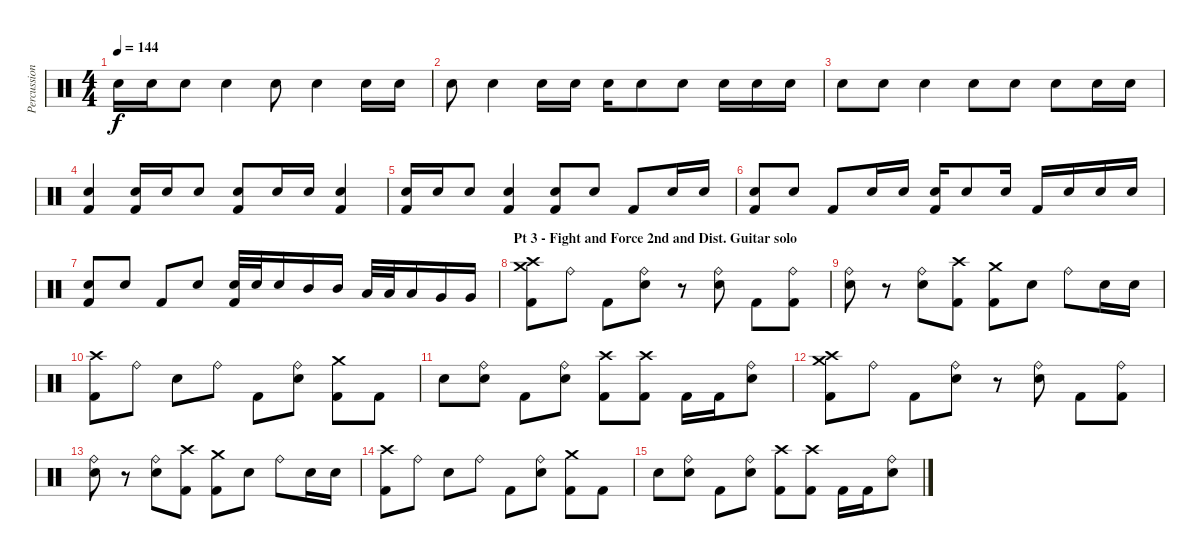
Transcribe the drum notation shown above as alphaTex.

\track ("Percussion" "Percussion") {instrument percussion}
\staff {score}
\articulation defaults
\ts (4 4)
\tempo 144
\clef neutral
\ks c "Electric Snare (hit)".16{dy f} "Electric Snare (hit)".16 "Electric Snare (hit)".8 "Electric Snare (hit)".4 "Electric Snare (hit)".8 "Electric Snare (hit)".4 "Electric Snare (hit)".16 "Electric Snare (hit)".16
|
"Electric Snare (hit)".8 "Electric Snare (hit)".4 "Electric Snare (hit)".16 "Electric Snare (hit)".16 "Electric Snare (hit)".16 "Electric Snare (hit)".8 "Electric Snare (hit)".8 "Electric Snare (hit)".16 "Electric Snare (hit)".16 "Electric Snare (hit)".16 |
"Electric Snare (hit)".8 "Electric Snare (hit)".8 "Electric Snare (hit)".4 "Electric Snare (hit)".8 "Electric Snare (hit)".8 "Electric Snare (hit)".8 "Electric Snare (hit)".16 "Electric Snare (hit)".16 |
("Electric Snare (hit)" "Kick (hit) 2").4 ("Electric Snare (hit)" "Kick (hit) 2").16 "Electric Snare (hit)".16 "Electric Snare (hit)".8 ("Electric Snare (hit)" "Kick (hit) 2").8 "Electric Snare (hit)".16 "Electric Snare (hit)".16 ("Electric Snare (hit)" "Kick (hit) 2").4 |
("Electric Snare (hit)" "Kick (hit) 2").16 "Electric Snare (hit)".16 "Electric Snare (hit)".8 ("Electric Snare (hit)" "Kick (hit) 2").4 ("Electric Snare (hit)" "Kick (hit) 2").8 "Electric Snare (hit)".8 "Kick (hit) 2".8 "Electric Snare (hit)".16 "Electric Snare (hit)".16 |
("Electric Snare (hit)" "Kick (hit) 2").8 "Electric Snare (hit)".8 "Kick (hit) 2".8 "Electric Snare (hit)".16 "Electric Snare (hit)".16 ("Electric Snare (hit)" "Kick (hit) 2").16 "Electric Snare (hit)".8 "Electric Snare (hit)".16 "Kick (hit) 2".16 "Electric Snare (hit)".16 "Electric Snare (hit)".16 "Electric Snare (hit)".16 |
("Electric Snare (hit)" "Kick (hit) 2").8 "Electric Snare (hit)".8 "Kick (hit) 2".8 "Electric Snare (hit)".8 ("Electric Snare (hit)" "Kick (hit) 2").32 "Electric Snare (hit)".32 "Electric Snare (hit)".16 "Mid Tom (hit)".16 "Mid Tom (hit)".16 "Low Tom (hit)".32 "Low Tom (hit)".32 "Low Tom (hit)".16 "Very Low Tom (hit)".16 "Very Low Tom (hit)".16 |
\section ("" "Pt 3 - Fight and Force 2nd and Dist. Guitar solo")
("Crash medium (hit)" "Crash high (hit)" "Kick (hit) 2").8 "Ride (bell)".8 "Kick (hit) 2".8 ("Ride (bell)" "Electric Snare (hit)").8 r.8 ("Ride (bell)" "Electric Snare (hit)").8 "Kick (hit) 2".8 ("Ride (bell)" "Kick (hit) 2").8 |
("Ride (bell)" "Electric Snare (hit)").8 r.8 ("Ride (bell)" "Electric Snare (hit)").8 ("Crash high (hit)" "Kick (hit) 2").8 ("Crash medium (hit)" "Kick (hit) 2").8 "Electric Snare (hit)".8 "Ride (bell)".8 "Electric Snare (hit)".16 "Electric Snare (hit)".16 |
("Crash high (hit)" "Kick (hit) 2").8 "Ride (bell)".8 "Electric Snare (hit)".8 "Ride (bell)".8 "Kick (hit) 2".8 ("Ride (bell)" "Electric Snare (hit)").8 ("Crash medium (hit)" "Kick (hit) 2").8 "Kick (hit) 2".8 |
"Electric Snare (hit)".8 ("Ride (bell)" "Electric Snare (hit)").8 "Kick (hit) 2".8 ("Ride (bell)" "Electric Snare (hit)").8 ("Crash high (hit)" "Kick (hit) 2").8 ("Crash high (hit)" "Kick (hit) 2").8 "Kick (hit) 2".16 "Kick (hit) 2".16 ("Ride (bell)" "Electric Snare (hit)").8 |
("Crash medium (hit)" "Crash high (hit)" "Kick (hit) 2").8 "Ride (bell)".8 "Kick (hit) 2".8 ("Ride (bell)" "Electric Snare (hit)").8 r.8 ("Ride (bell)" "Electric Snare (hit)").8 "Kick (hit) 2".8 ("Ride (bell)" "Kick (hit) 2").8 |
("Ride (bell)" "Electric Snare (hit)").8 r.8 ("Ride (bell)" "Electric Snare (hit)").8 ("Crash high (hit)" "Kick (hit) 2").8 ("Crash medium (hit)" "Kick (hit) 2").8 "Electric Snare (hit)".8 "Ride (bell)".8 "Electric Snare (hit)".16 "Electric Snare (hit)".16 |
("Crash high (hit)" "Kick (hit) 2").8 "Ride (bell)".8 "Electric Snare (hit)".8 "Ride (bell)".8 "Kick (hit) 2".8 ("Ride (bell)" "Electric Snare (hit)").8 ("Crash medium (hit)" "Kick (hit) 2").8 "Kick (hit) 2".8 |
"Electric Snare (hit)".8 ("Ride (bell)" "Electric Snare (hit)").8 "Kick (hit) 2".8 ("Ride (bell)" "Electric Snare (hit)").8 ("Crash high (hit)" "Kick (hit) 2").8 ("Crash high (hit)" "Kick (hit) 2").8 "Kick (hit) 2".16 "Kick (hit) 2".16 ("Ride (bell)" "Electric Snare (hit)").8
